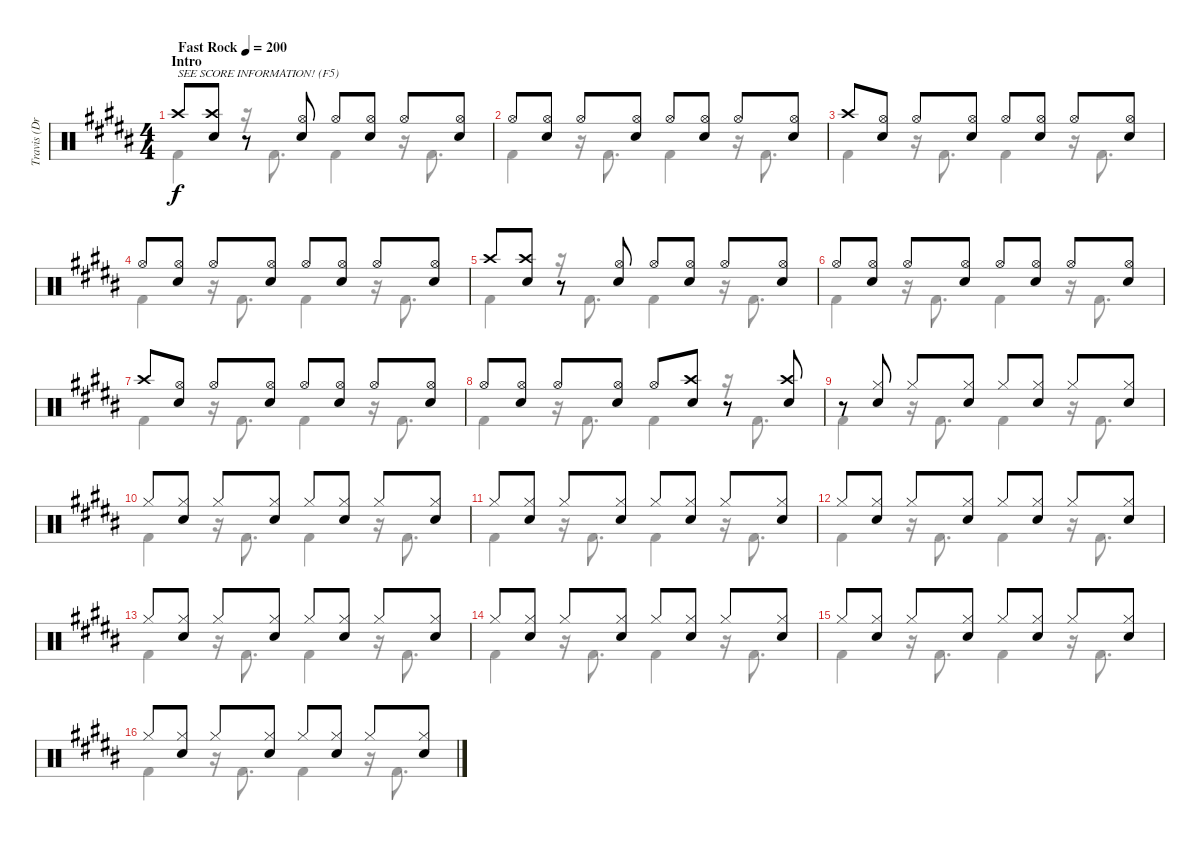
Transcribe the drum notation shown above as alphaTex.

\track ("Travis (Drums)" "Travis (Dr") {instrument percussion}
\staff {score}
\articulation defaults
\voice
\ts (4 4)
\section ("" "Intro")
\tempo (200 "Fast Rock")
\clef neutral
\ks b "Crash high (hit)".8{txt "SEE SCORE INFORMATION! (F5)" dy f}
("Crash high (hit)" "Electric Snare (hit)").8 r.8 ("Electric Snare (hit)" "Hi-Hat (open)").8 "Hi-Hat (open)".8 ("Electric Snare (hit)" "Hi-Hat (open)").8 "Hi-Hat (open)".8 ("Electric Snare (hit)" "Hi-Hat (open)").8 |
"Hi-Hat (open)".8 ("Electric Snare (hit)" "Hi-Hat (open)").8 "Hi-Hat (open)".8 ("Electric Snare (hit)" "Hi-Hat (open)").8 "Hi-Hat (open)".8 ("Electric Snare (hit)" "Hi-Hat (open)").8 "Hi-Hat (open)".8 ("Electric Snare (hit)" "Hi-Hat (open)").8 |
"Crash high (hit)".8 ("Electric Snare (hit)" "Hi-Hat (open)").8 "Hi-Hat (open)".8 ("Electric Snare (hit)" "Hi-Hat (open)").8 "Hi-Hat (open)".8 ("Electric Snare (hit)" "Hi-Hat (open)").8 "Hi-Hat (open)".8 ("Electric Snare (hit)" "Hi-Hat (open)").8 |
"Hi-Hat (open)".8 ("Electric Snare (hit)" "Hi-Hat (open)").8 "Hi-Hat (open)".8 ("Electric Snare (hit)" "Hi-Hat (open)").8 "Hi-Hat (open)".8 ("Electric Snare (hit)" "Hi-Hat (open)").8 "Hi-Hat (open)".8 ("Electric Snare (hit)" "Hi-Hat (open)").8 |
"Crash high (hit)".8 ("Crash high (hit)" "Electric Snare (hit)").8 r.8 ("Electric Snare (hit)" "Hi-Hat (open)").8 "Hi-Hat (open)".8 ("Electric Snare (hit)" "Hi-Hat (open)").8 "Hi-Hat (open)".8 ("Electric Snare (hit)" "Hi-Hat (open)").8 |
"Hi-Hat (open)".8 ("Electric Snare (hit)" "Hi-Hat (open)").8 "Hi-Hat (open)".8 ("Electric Snare (hit)" "Hi-Hat (open)").8 "Hi-Hat (open)".8 ("Electric Snare (hit)" "Hi-Hat (open)").8 "Hi-Hat (open)".8 ("Electric Snare (hit)" "Hi-Hat (open)").8 |
"Crash high (hit)".8 ("Electric Snare (hit)" "Hi-Hat (open)").8 "Hi-Hat (open)".8 ("Electric Snare (hit)" "Hi-Hat (open)").8 "Hi-Hat (open)".8 ("Electric Snare (hit)" "Hi-Hat (open)").8 "Hi-Hat (open)".8 ("Electric Snare (hit)" "Hi-Hat (open)").8 |
"Hi-Hat (open)".8 ("Electric Snare (hit)" "Hi-Hat (open)").8 "Hi-Hat (open)".8 ("Electric Snare (hit)" "Hi-Hat (open)").8 "Hi-Hat (open)".8 ("Crash high (hit)" "Electric Snare (hit)").8 r.8 ("Crash high (hit)" "Electric Snare (hit)").8 |
r.8 ("Electric Snare (hit)" "Hi-Hat (closed)").8 "Hi-Hat (closed)".8 ("Electric Snare (hit)" "Hi-Hat (closed)").8 "Hi-Hat (closed)".8 ("Electric Snare (hit)" "Hi-Hat (closed)").8 "Hi-Hat (closed)".8 ("Electric Snare (hit)" "Hi-Hat (closed)").8 |
"Hi-Hat (closed)".8 ("Electric Snare (hit)" "Hi-Hat (closed)").8 "Hi-Hat (closed)".8 ("Electric Snare (hit)" "Hi-Hat (closed)").8 "Hi-Hat (closed)".8 ("Electric Snare (hit)" "Hi-Hat (closed)").8 "Hi-Hat (closed)".8 ("Electric Snare (hit)" "Hi-Hat (closed)").8 |
"Hi-Hat (closed)".8 ("Electric Snare (hit)" "Hi-Hat (closed)").8 "Hi-Hat (closed)".8 ("Electric Snare (hit)" "Hi-Hat (closed)").8 "Hi-Hat (closed)".8 ("Electric Snare (hit)" "Hi-Hat (closed)").8 "Hi-Hat (closed)".8 ("Electric Snare (hit)" "Hi-Hat (closed)").8 |
"Hi-Hat (closed)".8 ("Electric Snare (hit)" "Hi-Hat (closed)").8 "Hi-Hat (closed)".8 ("Electric Snare (hit)" "Hi-Hat (closed)").8 "Hi-Hat (closed)".8 ("Electric Snare (hit)" "Hi-Hat (closed)").8 "Hi-Hat (closed)".8 ("Electric Snare (hit)" "Hi-Hat (closed)").8 |
"Hi-Hat (closed)".8 ("Electric Snare (hit)" "Hi-Hat (closed)").8 "Hi-Hat (closed)".8 ("Electric Snare (hit)" "Hi-Hat (closed)").8 "Hi-Hat (closed)".8 ("Electric Snare (hit)" "Hi-Hat (closed)").8 "Hi-Hat (closed)".8 ("Electric Snare (hit)" "Hi-Hat (closed)").8 |
"Hi-Hat (closed)".8 ("Electric Snare (hit)" "Hi-Hat (closed)").8 "Hi-Hat (closed)".8 ("Electric Snare (hit)" "Hi-Hat (closed)").8 "Hi-Hat (closed)".8 ("Electric Snare (hit)" "Hi-Hat (closed)").8 "Hi-Hat (closed)".8 ("Electric Snare (hit)" "Hi-Hat (closed)").8 |
"Hi-Hat (closed)".8 ("Electric Snare (hit)" "Hi-Hat (closed)").8 "Hi-Hat (closed)".8 ("Electric Snare (hit)" "Hi-Hat (closed)").8 "Hi-Hat (closed)".8 ("Electric Snare (hit)" "Hi-Hat (closed)").8 "Hi-Hat (closed)".8 ("Electric Snare (hit)" "Hi-Hat (closed)").8 |
"Hi-Hat (closed)".8 ("Electric Snare (hit)" "Hi-Hat (closed)").8 "Hi-Hat (closed)".8 ("Electric Snare (hit)" "Hi-Hat (closed)").8 "Hi-Hat (closed)".8 ("Electric Snare (hit)" "Hi-Hat (closed)").8 "Hi-Hat (closed)".8 ("Electric Snare (hit)" "Hi-Hat (closed)").8
\voice
\clef neutral
\ottava regular
\simile none
\ks b "Kick (hit) 2".4{dy f}
r.16 "Kick (hit) 2".8{d} "Kick (hit) 2".4 r.16 "Kick (hit) 2".8{d} |
"Kick (hit) 2".4 r.16 "Kick (hit) 2".8{d} "Kick (hit) 2".4 r.16 "Kick (hit) 2".8{d} |
"Kick (hit) 2".4 r.16 "Kick (hit) 2".8{d} "Kick (hit) 2".4 r.16 "Kick (hit) 2".8{d} |
"Kick (hit) 2".4 r.16 "Kick (hit) 2".8{d} "Kick (hit) 2".4 r.16 "Kick (hit) 2".8{d} |
"Kick (hit) 2".4 r.16 "Kick (hit) 2".8{d} "Kick (hit) 2".4 r.16 "Kick (hit) 2".8{d} |
"Kick (hit) 2".4 r.16 "Kick (hit) 2".8{d} "Kick (hit) 2".4 r.16 "Kick (hit) 2".8{d} |
"Kick (hit) 2".4 r.16 "Kick (hit) 2".8{d} "Kick (hit) 2".4 r.16 "Kick (hit) 2".8{d} |
"Kick (hit) 2".4 r.16 "Kick (hit) 2".8{d} "Kick (hit) 2".4 r.16 "Kick (hit) 2".8{d} |
"Kick (hit) 2".4 r.16 "Kick (hit) 2".8{d} "Kick (hit) 2".4 r.16 "Kick (hit) 2".8{d} |
"Kick (hit) 2".4 r.16 "Kick (hit) 2".8{d} "Kick (hit) 2".4 r.16 "Kick (hit) 2".8{d} |
"Kick (hit) 2".4 r.16 "Kick (hit) 2".8{d} "Kick (hit) 2".4 r.16 "Kick (hit) 2".8{d} |
"Kick (hit) 2".4 r.16 "Kick (hit) 2".8{d} "Kick (hit) 2".4 r.16 "Kick (hit) 2".8{d} |
"Kick (hit) 2".4 r.16 "Kick (hit) 2".8{d} "Kick (hit) 2".4 r.16 "Kick (hit) 2".8{d} |
"Kick (hit) 2".4 r.16 "Kick (hit) 2".8{d} "Kick (hit) 2".4 r.16 "Kick (hit) 2".8{d} |
"Kick (hit) 2".4 r.16 "Kick (hit) 2".8{d} "Kick (hit) 2".4 r.16 "Kick (hit) 2".8{d} |
"Kick (hit) 2".4 r.16 "Kick (hit) 2".8{d} "Kick (hit) 2".4 r.16 "Kick (hit) 2".8{d}
